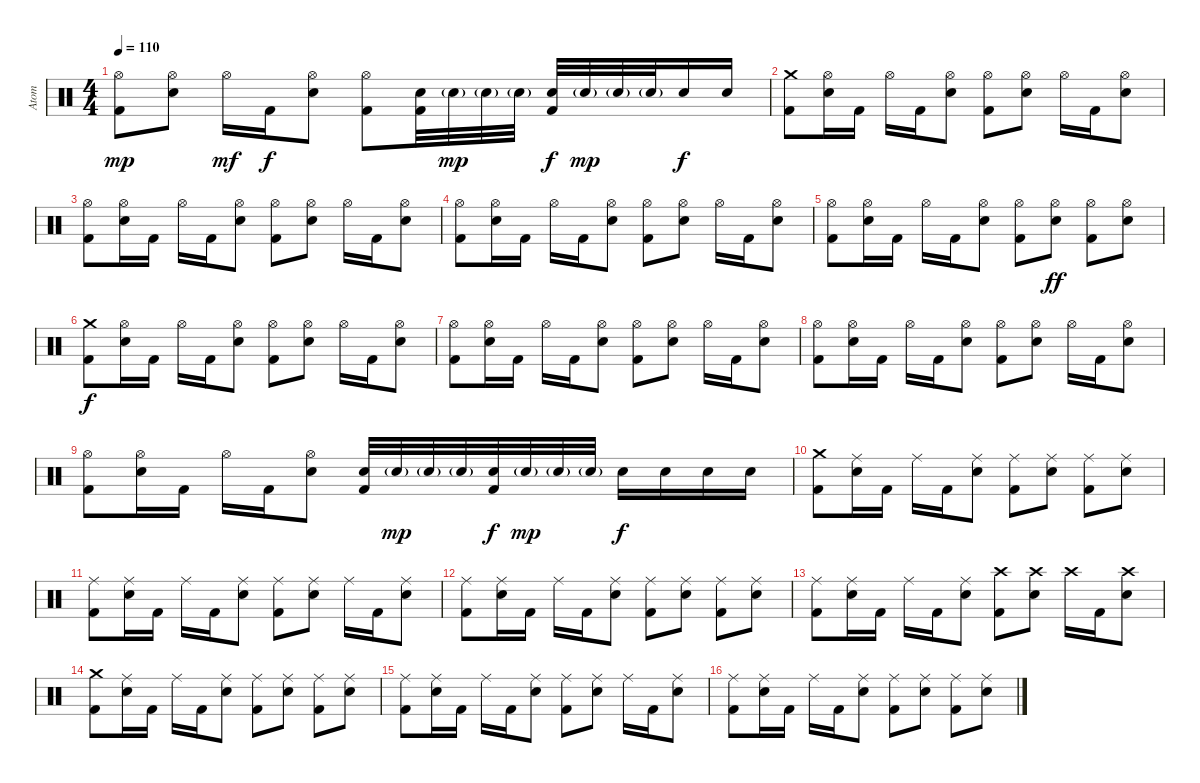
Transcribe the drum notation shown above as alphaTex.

\track ("Atom" "Atom") {instrument percussion}
\staff {score}
\articulation defaults
\ts (4 4)
\tempo 110
\clef neutral
\ks c
("Hi-Hat (open)" "Kick (hit) 2").8{dy mp} ("Hi-Hat (open)" "Electric Snare (hit)").8 "Hi-Hat (open)".16{dy mf} "Kick (hit) 2".16{dy f} ("Hi-Hat (open)" "Electric Snare (hit)").8 ("Hi-Hat (open)" "Kick (hit) 2").8 ("Electric Snare (hit)" "Kick (hit) 2").32 "Electric Snare (hit)"{g}.32{dy mp} "Electric Snare (hit)"{g}.32 "Electric Snare (hit)"{g}.32 ("Electric Snare (hit)" "Kick (hit) 2").32{dy f} "Electric Snare (hit)"{g}.32{dy mp} "Electric Snare (hit)"{g}.32 "Electric Snare (hit)"{g}.32 "Electric Snare (hit)".16{dy f} "Electric Snare (hit)".16 |
("Crash medium (hit)" "Kick (hit) 2").8 ("Hi-Hat (open)" "Electric Snare (hit)").16 "Kick (hit) 2".16 "Hi-Hat (open)".16 "Kick (hit) 2".16 ("Hi-Hat (open)" "Electric Snare (hit)").8 ("Hi-Hat (open)" "Kick (hit) 2").8 ("Hi-Hat (open)" "Electric Snare (hit)").8 "Hi-Hat (open)".16 "Kick (hit) 2".16 ("Hi-Hat (open)" "Electric Snare (hit)").8 |
("Hi-Hat (open)" "Kick (hit) 2").8 ("Hi-Hat (open)" "Electric Snare (hit)").16 "Kick (hit) 2".16 "Hi-Hat (open)".16 "Kick (hit) 2".16 ("Hi-Hat (open)" "Electric Snare (hit)").8 ("Hi-Hat (open)" "Kick (hit) 2").8 ("Hi-Hat (open)" "Electric Snare (hit)").8 "Hi-Hat (open)".16 "Kick (hit) 2".16 ("Hi-Hat (open)" "Electric Snare (hit)").8 |
("Hi-Hat (open)" "Kick (hit) 2").8 ("Hi-Hat (open)" "Electric Snare (hit)").16 "Kick (hit) 2".16 "Hi-Hat (open)".16 "Kick (hit) 2".16 ("Hi-Hat (open)" "Electric Snare (hit)").8 ("Hi-Hat (open)" "Kick (hit) 2").8 ("Hi-Hat (open)" "Electric Snare (hit)").8 "Hi-Hat (open)".16 "Kick (hit) 2".16 ("Hi-Hat (open)" "Electric Snare (hit)").8 |
("Hi-Hat (open)" "Kick (hit) 2").8 ("Hi-Hat (open)" "Electric Snare (hit)").16 "Kick (hit) 2".16 "Hi-Hat (open)".16 "Kick (hit) 2".16 ("Hi-Hat (open)" "Electric Snare (hit)").8 ("Hi-Hat (open)" "Kick (hit) 2").8 ("Hi-Hat (open)" "Electric Snare (hit)").8{dy ff} ("Hi-Hat (open)" "Kick (hit) 2").8 ("Hi-Hat (open)" "Electric Snare (hit)").8 |
("Crash medium (hit)" "Kick (hit) 2").8{dy f} ("Hi-Hat (open)" "Electric Snare (hit)").16 "Kick (hit) 2".16 "Hi-Hat (open)".16 "Kick (hit) 2".16 ("Hi-Hat (open)" "Electric Snare (hit)").8 ("Hi-Hat (open)" "Kick (hit) 2").8 ("Hi-Hat (open)" "Electric Snare (hit)").8 "Hi-Hat (open)".16 "Kick (hit) 2".16 ("Hi-Hat (open)" "Electric Snare (hit)").8 |
("Hi-Hat (open)" "Kick (hit) 2").8 ("Hi-Hat (open)" "Electric Snare (hit)").16 "Kick (hit) 2".16 "Hi-Hat (open)".16 "Kick (hit) 2".16 ("Hi-Hat (open)" "Electric Snare (hit)").8 ("Hi-Hat (open)" "Kick (hit) 2").8 ("Hi-Hat (open)" "Electric Snare (hit)").8 "Hi-Hat (open)".16 "Kick (hit) 2".16 ("Hi-Hat (open)" "Electric Snare (hit)").8 |
("Hi-Hat (open)" "Kick (hit) 2").8 ("Hi-Hat (open)" "Electric Snare (hit)").16 "Kick (hit) 2".16 "Hi-Hat (open)".16 "Kick (hit) 2".16 ("Hi-Hat (open)" "Electric Snare (hit)").8 ("Hi-Hat (open)" "Kick (hit) 2").8 ("Hi-Hat (open)" "Electric Snare (hit)").8 "Hi-Hat (open)".16 "Kick (hit) 2".16 ("Hi-Hat (open)" "Electric Snare (hit)").8 |
("Hi-Hat (open)" "Kick (hit) 2").8 ("Hi-Hat (open)" "Electric Snare (hit)").16 "Kick (hit) 2".16 "Hi-Hat (open)".16 "Kick (hit) 2".16 ("Hi-Hat (open)" "Electric Snare (hit)").8 ("Electric Snare (hit)" "Kick (hit) 2").32 "Electric Snare (hit)"{g}.32{dy mp} "Electric Snare (hit)"{g}.32 "Electric Snare (hit)"{g}.32 ("Electric Snare (hit)" "Kick (hit) 2").32{dy f} "Electric Snare (hit)"{g}.32{dy mp} "Electric Snare (hit)"{g}.32 "Electric Snare (hit)"{g}.32 "Electric Snare (hit)".16{dy f} "Electric Snare (hit)".16 "Electric Snare (hit)".16 "Electric Snare (hit)".16 |
("Crash medium (hit)" "Kick (hit) 2").8 ("Ride (middle)" "Electric Snare (hit)").16 "Kick (hit) 2".16 "Ride (middle)".16 "Kick (hit) 2".16 ("Ride (middle)" "Electric Snare (hit)").8 ("Ride (middle)" "Kick (hit) 2").8 ("Ride (middle)" "Electric Snare (hit)").8 ("Ride (middle)" "Kick (hit) 2").8 ("Ride (middle)" "Electric Snare (hit)").8 |
("Ride (middle)" "Kick (hit) 2").8 ("Ride (middle)" "Electric Snare (hit)").16 "Kick (hit) 2".16 "Ride (middle)".16 "Kick (hit) 2".16 ("Ride (middle)" "Electric Snare (hit)").8 ("Ride (middle)" "Kick (hit) 2").8 ("Ride (middle)" "Electric Snare (hit)").8 "Ride (middle)".16 "Kick (hit) 2".16 ("Ride (middle)" "Electric Snare (hit)").8 |
("Ride (middle)" "Kick (hit) 2").8 ("Ride (middle)" "Electric Snare (hit)").16 "Kick (hit) 2".16 "Ride (middle)".16 "Kick (hit) 2".16 ("Ride (middle)" "Electric Snare (hit)").8 ("Ride (middle)" "Kick (hit) 2").8 ("Ride (middle)" "Electric Snare (hit)").8 ("Ride (middle)" "Kick (hit) 2").8 ("Ride (middle)" "Electric Snare (hit)").8 |
("Ride (middle)" "Kick (hit) 2").8 ("Ride (middle)" "Electric Snare (hit)").16 "Kick (hit) 2".16 "Ride (middle)".16 "Kick (hit) 2".16 ("Ride (middle)" "Electric Snare (hit)").8 ("Crash high (hit)" "Kick (hit) 2").8 ("Crash high (hit)" "Electric Snare (hit)").8 "Crash high (hit)".16 "Kick (hit) 2".16 ("Crash high (hit)" "Electric Snare (hit)").8 |
("Crash medium (hit)" "Kick (hit) 2").8 ("Ride (middle)" "Electric Snare (hit)").16 "Kick (hit) 2".16 "Ride (middle)".16 "Kick (hit) 2".16 ("Ride (middle)" "Electric Snare (hit)").8 ("Ride (middle)" "Kick (hit) 2").8 ("Ride (middle)" "Electric Snare (hit)").8 ("Ride (middle)" "Kick (hit) 2").8 ("Ride (middle)" "Electric Snare (hit)").8 |
("Ride (middle)" "Kick (hit) 2").8 ("Ride (middle)" "Electric Snare (hit)").16 "Kick (hit) 2".16 "Ride (middle)".16 "Kick (hit) 2".16 ("Ride (middle)" "Electric Snare (hit)").8 ("Ride (middle)" "Kick (hit) 2").8 ("Ride (middle)" "Electric Snare (hit)").8 "Ride (middle)".16 "Kick (hit) 2".16 ("Ride (middle)" "Electric Snare (hit)").8 |
("Ride (middle)" "Kick (hit) 2").8 ("Ride (middle)" "Electric Snare (hit)").16 "Kick (hit) 2".16 "Ride (middle)".16 "Kick (hit) 2".16 ("Ride (middle)" "Electric Snare (hit)").8 ("Ride (middle)" "Kick (hit) 2").8 ("Ride (middle)" "Electric Snare (hit)").8 ("Ride (middle)" "Kick (hit) 2").8 ("Ride (middle)" "Electric Snare (hit)").8
